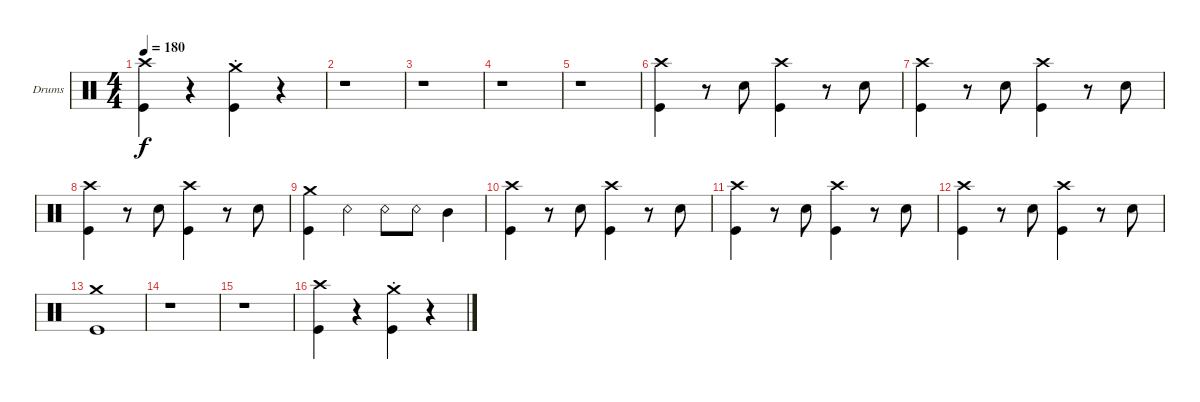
\bracketExtendMode groupsimilarinstruments
\firstSystemTrackNameOrientation horizontal
\otherSystemsTrackNameOrientation horizontal
\track ("Drumkit" "Drums") {solo instrument percussion}
\staff {score}
\articulation defaults
\ts (4 4)
\tempo 180
\clef neutral
\ks c
("Crash high (hit)" "Kick (hit)").4{dy f} r.4 ("Kick (hit)" "Crash medium (hit)"{st}).4 r.4 |
r.1 |
r.1 |
r.1 |
r.1 |
("Crash high (hit)" "Kick (hit)").4 r.8 "Snare (hit) 2".8 ("Crash high (hit)" "Kick (hit)").4 r.8 "Snare (hit) 2".8 |
("Crash high (hit)" "Kick (hit)").4 r.8 "Snare (hit) 2".8 ("Crash high (hit)" "Kick (hit)").4 r.8 "Snare (hit) 2".8 |
("Crash high (hit)" "Kick (hit)").4 r.8 "Snare (hit) 2".8 ("Crash high (hit)" "Kick (hit)").4 r.8 "Snare (hit) 2".8 |
("Crash medium (hit)" "Kick (hit)").4 "Snare (rim shot)".4 "Snare (rim shot)".8 "Snare (rim shot)".8 "Mid Tom (hit)".4 |
("Crash high (hit)" "Kick (hit)").4 r.8 "Snare (hit) 2".8 ("Crash high (hit)" "Kick (hit)").4 r.8 "Snare (hit) 2".8 |
("Crash high (hit)" "Kick (hit)").4 r.8 "Snare (hit) 2".8 ("Crash high (hit)" "Kick (hit)").4 r.8 "Snare (hit) 2".8 |
("Crash high (hit)" "Kick (hit)").4 r.8 "Snare (hit) 2".8 ("Crash high (hit)" "Kick (hit)").4 r.8 "Snare (hit) 2".8 |
("Crash medium (hit)" "Kick (hit)").1 |
r.1 |
r.1 |
("Crash high (hit)" "Kick (hit)").4 r.4 ("Kick (hit)" "Crash medium (hit)"{st}).4 r.4
